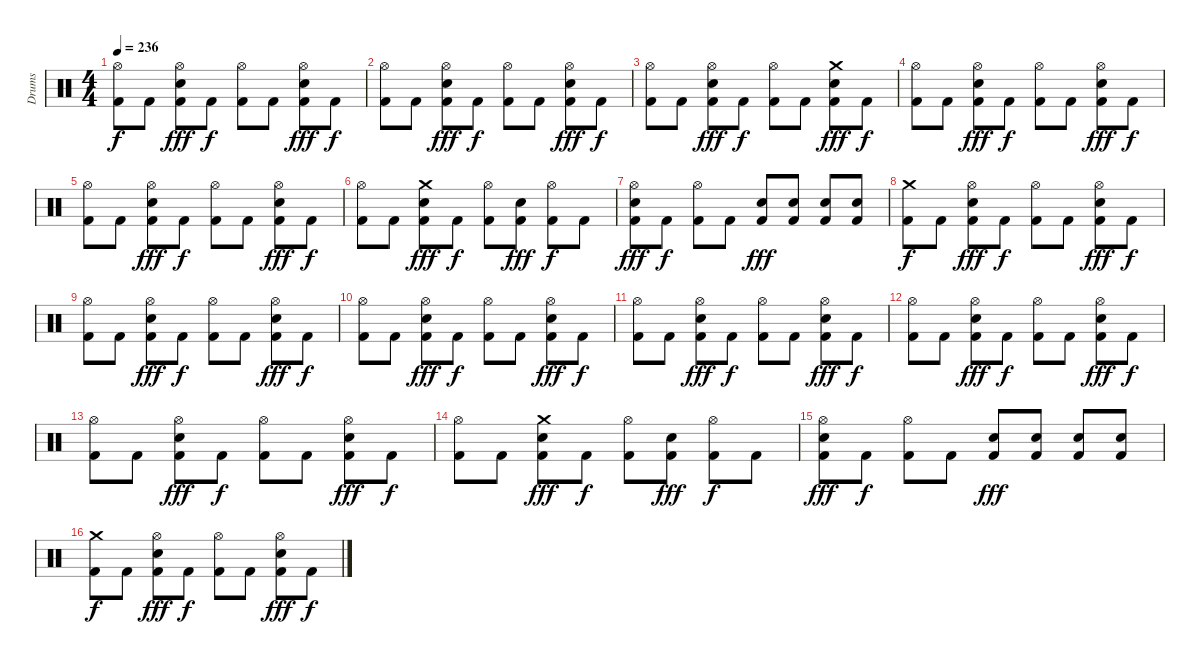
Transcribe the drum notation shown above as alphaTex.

\track ("Drums" "Drums") {instrument percussion}
\staff {score}
\articulation defaults
\ts (4 4)
\tempo 236
\clef neutral
\ks c
("Hi-Hat (open)" "Kick (hit) 2").8{dy f} "Kick (hit) 2".8 ("Hi-Hat (open)" "Kick (hit) 2" "Electric Snare (hit)").8{dy fff} "Kick (hit) 2".8{dy f} ("Hi-Hat (open)" "Kick (hit) 2").8 "Kick (hit) 2".8 ("Hi-Hat (open)" "Kick (hit) 2" "Electric Snare (hit)").8{dy fff} "Kick (hit) 2".8{dy f} |
("Hi-Hat (open)" "Kick (hit) 2").8 "Kick (hit) 2".8 ("Hi-Hat (open)" "Kick (hit) 2" "Electric Snare (hit)").8{dy fff} "Kick (hit) 2".8{dy f} ("Hi-Hat (open)" "Kick (hit) 2").8 "Kick (hit) 2".8 ("Hi-Hat (open)" "Kick (hit) 2" "Electric Snare (hit)").8{dy fff} "Kick (hit) 2".8{dy f} |
("Hi-Hat (open)" "Kick (hit) 2").8 "Kick (hit) 2".8 ("Hi-Hat (open)" "Kick (hit) 2" "Electric Snare (hit)").8{dy fff} "Kick (hit) 2".8{dy f} ("Hi-Hat (open)" "Kick (hit) 2").8 "Kick (hit) 2".8 ("Crash medium (hit)" "Kick (hit) 2" "Electric Snare (hit)").8{dy fff} "Kick (hit) 2".8{dy f} |
("Hi-Hat (open)" "Kick (hit) 2").8 "Kick (hit) 2".8 ("Hi-Hat (open)" "Kick (hit) 2" "Electric Snare (hit)").8{dy fff} "Kick (hit) 2".8{dy f} ("Hi-Hat (open)" "Kick (hit) 2").8 "Kick (hit) 2".8 ("Hi-Hat (open)" "Kick (hit) 2" "Electric Snare (hit)").8{dy fff} "Kick (hit) 2".8{dy f} |
("Hi-Hat (open)" "Kick (hit) 2").8 "Kick (hit) 2".8 ("Hi-Hat (open)" "Kick (hit) 2" "Electric Snare (hit)").8{dy fff} "Kick (hit) 2".8{dy f} ("Hi-Hat (open)" "Kick (hit) 2").8 "Kick (hit) 2".8 ("Hi-Hat (open)" "Kick (hit) 2" "Electric Snare (hit)").8{dy fff} "Kick (hit) 2".8{dy f} |
("Hi-Hat (open)" "Kick (hit) 2").8 "Kick (hit) 2".8 ("Crash medium (hit)" "Kick (hit) 2" "Electric Snare (hit)").8{dy fff} "Kick (hit) 2".8{dy f} ("Hi-Hat (open)" "Kick (hit) 2").8 ("Kick (hit) 2" "Electric Snare (hit)").8{dy fff} ("Hi-Hat (open)" "Kick (hit) 2").8{dy f} "Kick (hit) 2".8 |
("Hi-Hat (open)" "Kick (hit) 2" "Electric Snare (hit)").8{dy fff} "Kick (hit) 2".8{dy f} ("Hi-Hat (open)" "Kick (hit) 2").8 "Kick (hit) 2".8 ("Kick (hit) 2" "Electric Snare (hit)").8{dy fff} ("Kick (hit) 2" "Electric Snare (hit)").8 ("Kick (hit) 2" "Electric Snare (hit)").8 ("Kick (hit) 2" "Electric Snare (hit)").8 |
("Crash medium (hit)" "Kick (hit) 2").8{dy f} "Kick (hit) 2".8 ("Hi-Hat (open)" "Kick (hit) 2" "Electric Snare (hit)").8{dy fff} "Kick (hit) 2".8{dy f} ("Hi-Hat (open)" "Kick (hit) 2").8 "Kick (hit) 2".8 ("Hi-Hat (open)" "Kick (hit) 2" "Electric Snare (hit)").8{dy fff} "Kick (hit) 2".8{dy f} |
("Hi-Hat (open)" "Kick (hit) 2").8 "Kick (hit) 2".8 ("Hi-Hat (open)" "Kick (hit) 2" "Electric Snare (hit)").8{dy fff} "Kick (hit) 2".8{dy f} ("Hi-Hat (open)" "Kick (hit) 2").8 "Kick (hit) 2".8 ("Hi-Hat (open)" "Kick (hit) 2" "Electric Snare (hit)").8{dy fff} "Kick (hit) 2".8{dy f} |
("Hi-Hat (open)" "Kick (hit) 2").8 "Kick (hit) 2".8 ("Hi-Hat (open)" "Kick (hit) 2" "Electric Snare (hit)").8{dy fff} "Kick (hit) 2".8{dy f} ("Hi-Hat (open)" "Kick (hit) 2").8 "Kick (hit) 2".8 ("Hi-Hat (open)" "Kick (hit) 2" "Electric Snare (hit)").8{dy fff} "Kick (hit) 2".8{dy f} |
("Hi-Hat (open)" "Kick (hit) 2").8 "Kick (hit) 2".8 ("Hi-Hat (open)" "Kick (hit) 2" "Electric Snare (hit)").8{dy fff} "Kick (hit) 2".8{dy f} ("Hi-Hat (open)" "Kick (hit) 2").8 "Kick (hit) 2".8 ("Hi-Hat (open)" "Kick (hit) 2" "Electric Snare (hit)").8{dy fff} "Kick (hit) 2".8{dy f} |
("Hi-Hat (open)" "Kick (hit) 2").8 "Kick (hit) 2".8 ("Hi-Hat (open)" "Kick (hit) 2" "Electric Snare (hit)").8{dy fff} "Kick (hit) 2".8{dy f} ("Hi-Hat (open)" "Kick (hit) 2").8 "Kick (hit) 2".8 ("Hi-Hat (open)" "Kick (hit) 2" "Electric Snare (hit)").8{dy fff} "Kick (hit) 2".8{dy f} |
("Hi-Hat (open)" "Kick (hit) 2").8 "Kick (hit) 2".8 ("Hi-Hat (open)" "Kick (hit) 2" "Electric Snare (hit)").8{dy fff} "Kick (hit) 2".8{dy f} ("Hi-Hat (open)" "Kick (hit) 2").8 "Kick (hit) 2".8 ("Hi-Hat (open)" "Kick (hit) 2" "Electric Snare (hit)").8{dy fff} "Kick (hit) 2".8{dy f} |
("Hi-Hat (open)" "Kick (hit) 2").8 "Kick (hit) 2".8 ("Crash medium (hit)" "Kick (hit) 2" "Electric Snare (hit)").8{dy fff} "Kick (hit) 2".8{dy f} ("Hi-Hat (open)" "Kick (hit) 2").8 ("Kick (hit) 2" "Electric Snare (hit)").8{dy fff} ("Hi-Hat (open)" "Kick (hit) 2").8{dy f} "Kick (hit) 2".8 |
("Hi-Hat (open)" "Kick (hit) 2" "Electric Snare (hit)").8{dy fff} "Kick (hit) 2".8{dy f} ("Hi-Hat (open)" "Kick (hit) 2").8 "Kick (hit) 2".8 ("Kick (hit) 2" "Electric Snare (hit)").8{dy fff} ("Kick (hit) 2" "Electric Snare (hit)").8 ("Kick (hit) 2" "Electric Snare (hit)").8 ("Kick (hit) 2" "Electric Snare (hit)").8 |
("Crash medium (hit)" "Kick (hit) 2").8{dy f} "Kick (hit) 2".8 ("Hi-Hat (open)" "Kick (hit) 2" "Electric Snare (hit)").8{dy fff} "Kick (hit) 2".8{dy f} ("Hi-Hat (open)" "Kick (hit) 2").8 "Kick (hit) 2".8 ("Hi-Hat (open)" "Kick (hit) 2" "Electric Snare (hit)").8{dy fff} "Kick (hit) 2".8{dy f}
